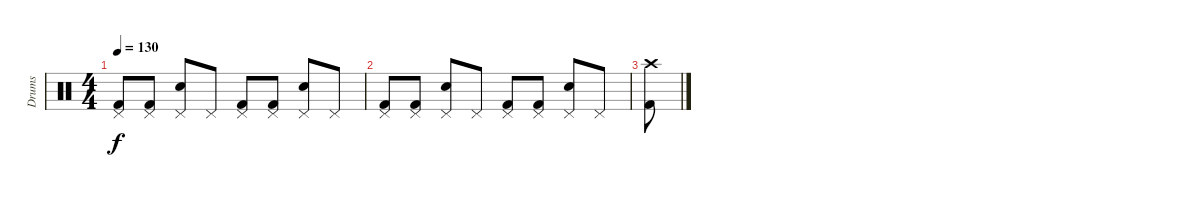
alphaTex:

\track ("Drums" "Drums") {instrument percussion}
\staff {score}
\articulation defaults
\ts (4 4)
\tempo 130
\clef neutral
\ks c
("Pedal Hi-Hat (hit)" "Kick (hit) 2").8{dy f} ("Pedal Hi-Hat (hit)" "Kick (hit) 2").8 ("Pedal Hi-Hat (hit)" "Snare (hit) 2").8 "Pedal Hi-Hat (hit)".8 ("Pedal Hi-Hat (hit)" "Kick (hit) 2").8 ("Pedal Hi-Hat (hit)" "Kick (hit) 2").8 ("Pedal Hi-Hat (hit)" "Snare (hit) 2").8 "Pedal Hi-Hat (hit)".8 |
("Pedal Hi-Hat (hit)" "Kick (hit) 2").8 ("Pedal Hi-Hat (hit)" "Kick (hit) 2").8 ("Pedal Hi-Hat (hit)" "Snare (hit) 2").8 "Pedal Hi-Hat (hit)".8 ("Pedal Hi-Hat (hit)" "Kick (hit) 2").8 ("Pedal Hi-Hat (hit)" "Kick (hit) 2").8 ("Pedal Hi-Hat (hit)" "Snare (hit) 2").8 "Pedal Hi-Hat (hit)".8 |
("Crash high (hit)" "Kick (hit) 2").8
